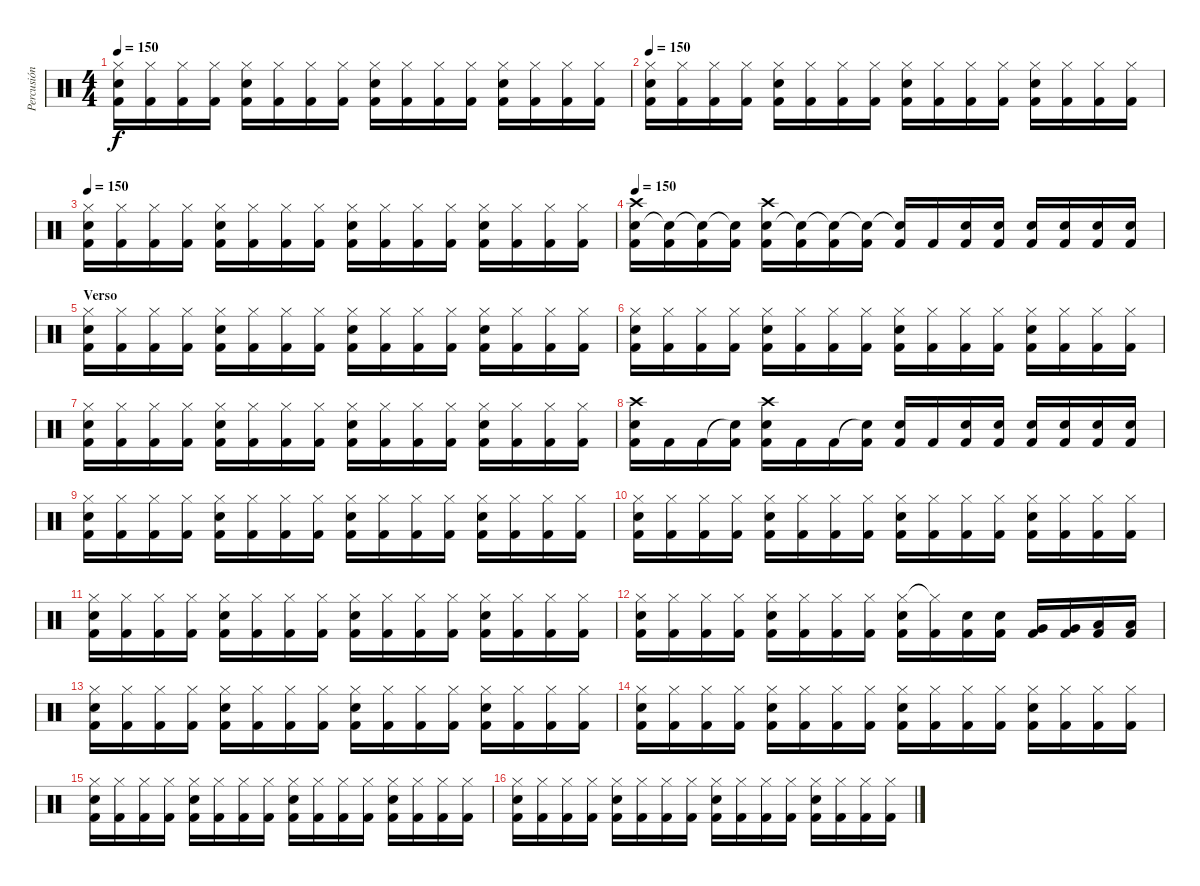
\track ("Percusión" "Percusión") {instrument percussion}
\staff {score}
\articulation defaults
\ts (4 4)
\tempo 150
\clef neutral
\ks c
("Hi-Hat (closed)" "Electric Snare (hit)" "Kick (hit) 2").16{dy f} ("Hi-Hat (closed)" "Kick (hit) 2").16 ("Hi-Hat (closed)" "Kick (hit) 2").16 ("Hi-Hat (closed)" "Kick (hit) 2").16 ("Hi-Hat (closed)" "Electric Snare (hit)" "Kick (hit) 2").16 ("Hi-Hat (closed)" "Kick (hit) 2").16 ("Hi-Hat (closed)" "Kick (hit) 2").16 ("Hi-Hat (closed)" "Kick (hit) 2").16 ("Hi-Hat (closed)" "Electric Snare (hit)" "Kick (hit) 2").16 ("Hi-Hat (closed)" "Kick (hit) 2").16 ("Hi-Hat (closed)" "Kick (hit) 2").16 ("Hi-Hat (closed)" "Kick (hit) 2").16 ("Hi-Hat (closed)" "Electric Snare (hit)" "Kick (hit) 2").16 ("Hi-Hat (closed)" "Kick (hit) 2").16 ("Hi-Hat (closed)" "Kick (hit) 2").16 ("Hi-Hat (closed)" "Kick (hit) 2").16 |
\tempo 150
("Hi-Hat (closed)" "Electric Snare (hit)" "Kick (hit) 2").16 ("Hi-Hat (closed)" "Kick (hit) 2").16 ("Hi-Hat (closed)" "Kick (hit) 2").16 ("Hi-Hat (closed)" "Kick (hit) 2").16 ("Hi-Hat (closed)" "Electric Snare (hit)" "Kick (hit) 2").16 ("Hi-Hat (closed)" "Kick (hit) 2").16 ("Hi-Hat (closed)" "Kick (hit) 2").16 ("Hi-Hat (closed)" "Kick (hit) 2").16 ("Hi-Hat (closed)" "Electric Snare (hit)" "Kick (hit) 2").16 ("Hi-Hat (closed)" "Kick (hit) 2").16 ("Hi-Hat (closed)" "Kick (hit) 2").16 ("Hi-Hat (closed)" "Kick (hit) 2").16 ("Hi-Hat (closed)" "Electric Snare (hit)" "Kick (hit) 2").16 ("Hi-Hat (closed)" "Kick (hit) 2").16 ("Hi-Hat (closed)" "Kick (hit) 2").16 ("Hi-Hat (closed)" "Kick (hit) 2").16 |
\tempo 150
("Hi-Hat (closed)" "Electric Snare (hit)" "Kick (hit) 2").16 ("Hi-Hat (closed)" "Kick (hit) 2").16 ("Hi-Hat (closed)" "Kick (hit) 2").16 ("Hi-Hat (closed)" "Kick (hit) 2").16 ("Hi-Hat (closed)" "Electric Snare (hit)" "Kick (hit) 2").16 ("Hi-Hat (closed)" "Kick (hit) 2").16 ("Hi-Hat (closed)" "Kick (hit) 2").16 ("Hi-Hat (closed)" "Kick (hit) 2").16 ("Hi-Hat (closed)" "Electric Snare (hit)" "Kick (hit) 2").16 ("Hi-Hat (closed)" "Kick (hit) 2").16 ("Hi-Hat (closed)" "Kick (hit) 2").16 ("Hi-Hat (closed)" "Kick (hit) 2").16 ("Hi-Hat (closed)" "Electric Snare (hit)" "Kick (hit) 2").16 ("Hi-Hat (closed)" "Kick (hit) 2").16 ("Hi-Hat (closed)" "Kick (hit) 2").16 ("Hi-Hat (closed)" "Kick (hit) 2").16 |
\tempo 150
("Electric Snare (hit)" "Crash high (hit)" "Kick (hit) 2").16 ("Snare (hit)"{t} "Kick (hit) 2").16 ("Snare (hit)"{t} "Kick (hit) 2").16 ("Snare (hit)"{t} "Kick (hit) 2").16 ("Electric Snare (hit)" "Crash high (hit)" "Kick (hit) 2").16 ("Snare (hit)"{t} "Kick (hit) 2").16 ("Snare (hit)"{t} "Kick (hit) 2").16 ("Snare (hit)"{t} "Kick (hit) 2").16 ("Snare (hit)"{t} "Kick (hit) 2").16 "Kick (hit) 2".16 ("Electric Snare (hit)" "Kick (hit) 2").16 ("Electric Snare (hit)" "Kick (hit) 2").16 ("Electric Snare (hit)" "Kick (hit) 2").16 ("Electric Snare (hit)" "Kick (hit) 2").16 ("Electric Snare (hit)" "Kick (hit) 2").16 ("Electric Snare (hit)" "Kick (hit) 2").16 |
\section ("" "Verso")
("Hi-Hat (closed)" "Electric Snare (hit)" "Kick (hit) 2").16 ("Hi-Hat (closed)" "Kick (hit) 2").16 ("Hi-Hat (closed)" "Kick (hit) 2").16 ("Hi-Hat (closed)" "Kick (hit) 2").16 ("Hi-Hat (closed)" "Electric Snare (hit)" "Kick (hit) 2").16 ("Hi-Hat (closed)" "Kick (hit) 2").16 ("Hi-Hat (closed)" "Kick (hit) 2").16 ("Hi-Hat (closed)" "Kick (hit) 2").16 ("Hi-Hat (closed)" "Electric Snare (hit)" "Kick (hit) 2").16 ("Hi-Hat (closed)" "Kick (hit) 2").16 ("Hi-Hat (closed)" "Kick (hit) 2").16 ("Hi-Hat (closed)" "Kick (hit) 2").16 ("Hi-Hat (closed)" "Electric Snare (hit)" "Kick (hit) 2").16 ("Hi-Hat (closed)" "Kick (hit) 2").16 ("Hi-Hat (closed)" "Kick (hit) 2").16 ("Hi-Hat (closed)" "Kick (hit) 2").16 |
("Hi-Hat (closed)" "Electric Snare (hit)" "Kick (hit) 2").16 ("Hi-Hat (closed)" "Kick (hit) 2").16 ("Hi-Hat (closed)" "Kick (hit) 2").16 ("Hi-Hat (closed)" "Kick (hit) 2").16 ("Hi-Hat (closed)" "Electric Snare (hit)" "Kick (hit) 2").16 ("Hi-Hat (closed)" "Kick (hit) 2").16 ("Hi-Hat (closed)" "Kick (hit) 2").16 ("Hi-Hat (closed)" "Kick (hit) 2").16 ("Hi-Hat (closed)" "Electric Snare (hit)" "Kick (hit) 2").16 ("Hi-Hat (closed)" "Kick (hit) 2").16 ("Hi-Hat (closed)" "Kick (hit) 2").16 ("Hi-Hat (closed)" "Kick (hit) 2").16 ("Hi-Hat (closed)" "Electric Snare (hit)" "Kick (hit) 2").16 ("Hi-Hat (closed)" "Kick (hit) 2").16 ("Hi-Hat (closed)" "Kick (hit) 2").16 ("Hi-Hat (closed)" "Kick (hit) 2").16 |
("Hi-Hat (closed)" "Electric Snare (hit)" "Kick (hit) 2").16 ("Hi-Hat (closed)" "Kick (hit) 2").16 ("Hi-Hat (closed)" "Kick (hit) 2").16 ("Hi-Hat (closed)" "Kick (hit) 2").16 ("Hi-Hat (closed)" "Electric Snare (hit)" "Kick (hit) 2").16 ("Hi-Hat (closed)" "Kick (hit) 2").16 ("Hi-Hat (closed)" "Kick (hit) 2").16 ("Hi-Hat (closed)" "Kick (hit) 2").16 ("Hi-Hat (closed)" "Electric Snare (hit)" "Kick (hit) 2").16 ("Hi-Hat (closed)" "Kick (hit) 2").16 ("Hi-Hat (closed)" "Kick (hit) 2").16 ("Hi-Hat (closed)" "Kick (hit) 2").16 ("Hi-Hat (closed)" "Electric Snare (hit)" "Kick (hit) 2").16 ("Hi-Hat (closed)" "Kick (hit) 2").16 ("Hi-Hat (closed)" "Kick (hit) 2").16 ("Hi-Hat (closed)" "Kick (hit) 2").16 |
("Electric Snare (hit)" "Crash high (hit)" "Kick (hit) 2").16 "Kick (hit) 2".16 "Kick (hit) 2".16 ("Snare (hit)"{t} "Kick (hit) 2").16 ("Electric Snare (hit)" "Crash high (hit)" "Kick (hit) 2").16 "Kick (hit) 2".16 "Kick (hit) 2".16 ("Snare (hit)"{t} "Kick (hit) 2").16 ("Electric Snare (hit)" "Kick (hit) 2").16 "Kick (hit) 2".16 ("Electric Snare (hit)" "Kick (hit) 2").16 ("Electric Snare (hit)" "Kick (hit) 2").16 ("Electric Snare (hit)" "Kick (hit) 2").16 ("Electric Snare (hit)" "Kick (hit) 2").16 ("Electric Snare (hit)" "Kick (hit) 2").16 ("Electric Snare (hit)" "Kick (hit) 2").16 |
("Hi-Hat (closed)" "Electric Snare (hit)" "Kick (hit) 2").16 ("Hi-Hat (closed)" "Kick (hit) 2").16 ("Hi-Hat (closed)" "Kick (hit) 2").16 ("Hi-Hat (closed)" "Kick (hit) 2").16 ("Hi-Hat (closed)" "Electric Snare (hit)" "Kick (hit) 2").16 ("Hi-Hat (closed)" "Kick (hit) 2").16 ("Hi-Hat (closed)" "Kick (hit) 2").16 ("Hi-Hat (closed)" "Kick (hit) 2").16 ("Hi-Hat (closed)" "Electric Snare (hit)" "Kick (hit) 2").16 ("Hi-Hat (closed)" "Kick (hit) 2").16 ("Hi-Hat (closed)" "Kick (hit) 2").16 ("Hi-Hat (closed)" "Kick (hit) 2").16 ("Hi-Hat (closed)" "Electric Snare (hit)" "Kick (hit) 2").16 ("Hi-Hat (closed)" "Kick (hit) 2").16 ("Hi-Hat (closed)" "Kick (hit) 2").16 ("Hi-Hat (closed)" "Kick (hit) 2").16 |
("Hi-Hat (closed)" "Electric Snare (hit)" "Kick (hit) 2").16 ("Hi-Hat (closed)" "Kick (hit) 2").16 ("Hi-Hat (closed)" "Kick (hit) 2").16 ("Hi-Hat (closed)" "Kick (hit) 2").16 ("Hi-Hat (closed)" "Electric Snare (hit)" "Kick (hit) 2").16 ("Hi-Hat (closed)" "Kick (hit) 2").16 ("Hi-Hat (closed)" "Kick (hit) 2").16 ("Hi-Hat (closed)" "Kick (hit) 2").16 ("Hi-Hat (closed)" "Electric Snare (hit)" "Kick (hit) 2").16 ("Hi-Hat (closed)" "Kick (hit) 2").16 ("Hi-Hat (closed)" "Kick (hit) 2").16 ("Hi-Hat (closed)" "Kick (hit) 2").16 ("Hi-Hat (closed)" "Electric Snare (hit)" "Kick (hit) 2").16 ("Hi-Hat (closed)" "Kick (hit) 2").16 ("Hi-Hat (closed)" "Kick (hit) 2").16 ("Hi-Hat (closed)" "Kick (hit) 2").16 |
("Hi-Hat (closed)" "Electric Snare (hit)" "Kick (hit) 2").16 ("Hi-Hat (closed)" "Kick (hit) 2").16 ("Hi-Hat (closed)" "Kick (hit) 2").16 ("Hi-Hat (closed)" "Kick (hit) 2").16 ("Hi-Hat (closed)" "Electric Snare (hit)" "Kick (hit) 2").16 ("Hi-Hat (closed)" "Kick (hit) 2").16 ("Hi-Hat (closed)" "Kick (hit) 2").16 ("Hi-Hat (closed)" "Kick (hit) 2").16 ("Hi-Hat (closed)" "Electric Snare (hit)" "Kick (hit) 2").16 ("Hi-Hat (closed)" "Kick (hit) 2").16 ("Hi-Hat (closed)" "Kick (hit) 2").16 ("Hi-Hat (closed)" "Kick (hit) 2").16 ("Hi-Hat (closed)" "Electric Snare (hit)" "Kick (hit) 2").16 ("Hi-Hat (closed)" "Kick (hit) 2").16 ("Hi-Hat (closed)" "Kick (hit) 2").16 ("Hi-Hat (closed)" "Kick (hit) 2").16 |
("Hi-Hat (closed)" "Electric Snare (hit)" "Kick (hit) 2").16 ("Hi-Hat (closed)" "Kick (hit) 2").16 ("Hi-Hat (closed)" "Kick (hit) 2").16 ("Hi-Hat (closed)" "Kick (hit) 2").16 ("Hi-Hat (closed)" "Electric Snare (hit)" "Kick (hit) 2").16 ("Hi-Hat (closed)" "Kick (hit) 2").16 ("Hi-Hat (closed)" "Kick (hit) 2").16 ("Hi-Hat (closed)" "Kick (hit) 2").16 ("Hi-Hat (closed)" "Electric Snare (hit)" "Kick (hit) 2").16 ("Hi-Hat (closed)"{t} "Kick (hit) 2").16 ("Electric Snare (hit)" "Kick (hit) 2").16 ("Electric Snare (hit)" "Kick (hit) 2").16 ("Very Low Tom (hit)" "Kick (hit) 2").16 ("Very Low Tom (hit)" "Kick (hit) 2").16 ("Low Tom (hit)" "Kick (hit) 2").16 ("Low Tom (hit)" "Kick (hit) 2").16 |
("Hi-Hat (closed)" "Electric Snare (hit)" "Kick (hit) 2").16 ("Hi-Hat (closed)" "Kick (hit) 2").16 ("Hi-Hat (closed)" "Kick (hit) 2").16 ("Hi-Hat (closed)" "Kick (hit) 2").16 ("Hi-Hat (closed)" "Electric Snare (hit)" "Kick (hit) 2").16 ("Hi-Hat (closed)" "Kick (hit) 2").16 ("Hi-Hat (closed)" "Kick (hit) 2").16 ("Hi-Hat (closed)" "Kick (hit) 2").16 ("Hi-Hat (closed)" "Electric Snare (hit)" "Kick (hit) 2").16 ("Hi-Hat (closed)" "Kick (hit) 2").16 ("Hi-Hat (closed)" "Kick (hit) 2").16 ("Hi-Hat (closed)" "Kick (hit) 2").16 ("Hi-Hat (closed)" "Electric Snare (hit)" "Kick (hit) 2").16 ("Hi-Hat (closed)" "Kick (hit) 2").16 ("Hi-Hat (closed)" "Kick (hit) 2").16 ("Hi-Hat (closed)" "Kick (hit) 2").16 |
("Hi-Hat (closed)" "Electric Snare (hit)" "Kick (hit) 2").16 ("Hi-Hat (closed)" "Kick (hit) 2").16 ("Hi-Hat (closed)" "Kick (hit) 2").16 ("Hi-Hat (closed)" "Kick (hit) 2").16 ("Hi-Hat (closed)" "Electric Snare (hit)" "Kick (hit) 2").16 ("Hi-Hat (closed)" "Kick (hit) 2").16 ("Hi-Hat (closed)" "Kick (hit) 2").16 ("Hi-Hat (closed)" "Kick (hit) 2").16 ("Hi-Hat (closed)" "Electric Snare (hit)" "Kick (hit) 2").16 ("Hi-Hat (closed)" "Kick (hit) 2").16 ("Hi-Hat (closed)" "Kick (hit) 2").16 ("Hi-Hat (closed)" "Kick (hit) 2").16 ("Hi-Hat (closed)" "Electric Snare (hit)" "Kick (hit) 2").16 ("Hi-Hat (closed)" "Kick (hit) 2").16 ("Hi-Hat (closed)" "Kick (hit) 2").16 ("Hi-Hat (closed)" "Kick (hit) 2").16 |
("Hi-Hat (closed)" "Electric Snare (hit)" "Kick (hit) 2").16 ("Hi-Hat (closed)" "Kick (hit) 2").16 ("Hi-Hat (closed)" "Kick (hit) 2").16 ("Hi-Hat (closed)" "Kick (hit) 2").16 ("Hi-Hat (closed)" "Electric Snare (hit)" "Kick (hit) 2").16 ("Hi-Hat (closed)" "Kick (hit) 2").16 ("Hi-Hat (closed)" "Kick (hit) 2").16 ("Hi-Hat (closed)" "Kick (hit) 2").16 ("Hi-Hat (closed)" "Electric Snare (hit)" "Kick (hit) 2").16 ("Hi-Hat (closed)" "Kick (hit) 2").16 ("Hi-Hat (closed)" "Kick (hit) 2").16 ("Hi-Hat (closed)" "Kick (hit) 2").16 ("Hi-Hat (closed)" "Electric Snare (hit)" "Kick (hit) 2").16 ("Hi-Hat (closed)" "Kick (hit) 2").16 ("Hi-Hat (closed)" "Kick (hit) 2").16 ("Hi-Hat (closed)" "Kick (hit) 2").16 |
("Hi-Hat (closed)" "Electric Snare (hit)" "Kick (hit) 2").16 ("Hi-Hat (closed)" "Kick (hit) 2").16 ("Hi-Hat (closed)" "Kick (hit) 2").16 ("Hi-Hat (closed)" "Kick (hit) 2").16 ("Hi-Hat (closed)" "Electric Snare (hit)" "Kick (hit) 2").16 ("Hi-Hat (closed)" "Kick (hit) 2").16 ("Hi-Hat (closed)" "Kick (hit) 2").16 ("Hi-Hat (closed)" "Kick (hit) 2").16 ("Hi-Hat (closed)" "Electric Snare (hit)" "Kick (hit) 2").16 ("Hi-Hat (closed)" "Kick (hit) 2").16 ("Hi-Hat (closed)" "Kick (hit) 2").16 ("Hi-Hat (closed)" "Kick (hit) 2").16 ("Hi-Hat (closed)" "Electric Snare (hit)" "Kick (hit) 2").16 ("Hi-Hat (closed)" "Kick (hit) 2").16 ("Hi-Hat (closed)" "Kick (hit) 2").16 ("Hi-Hat (closed)" "Kick (hit) 2").16
